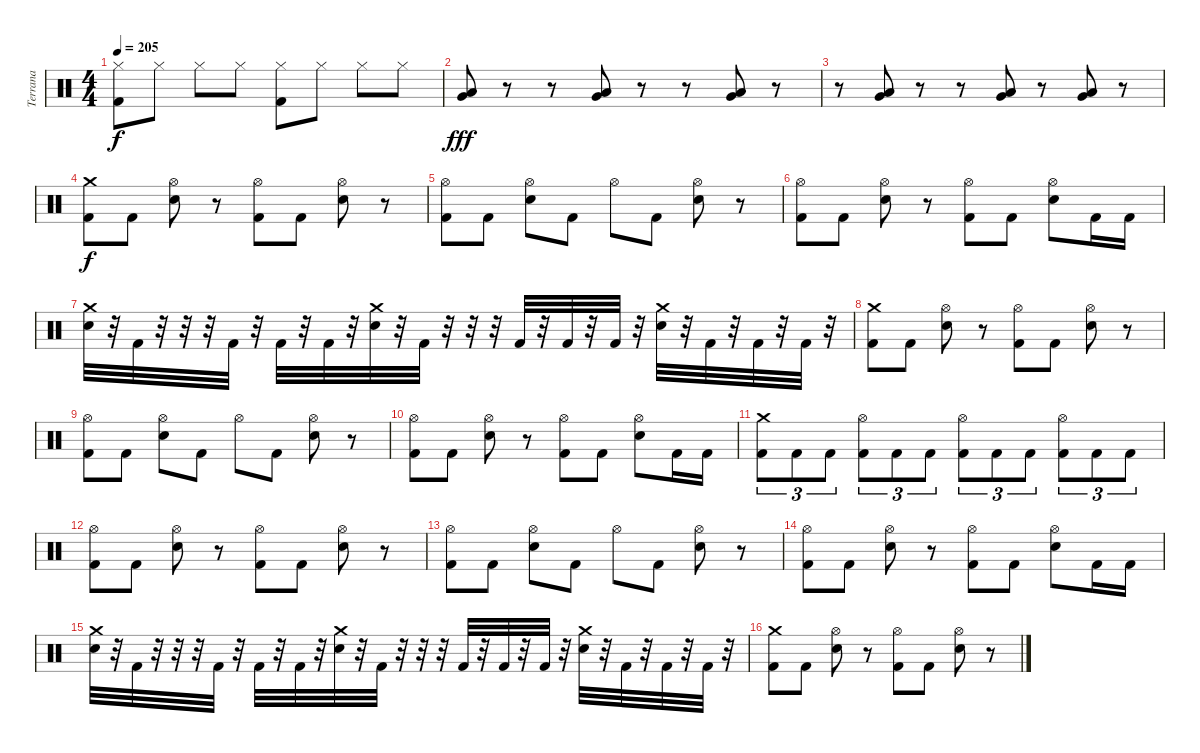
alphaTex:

\track ("Terrana" "Terrana") {instrument percussion}
\staff {score}
\articulation defaults
\ts (4 4)
\tempo 205
\clef neutral
\ks c
("Hi-Hat (closed)" "Kick (hit) 2").8{dy f} "Hi-Hat (closed)".8 "Hi-Hat (closed)".8 "Hi-Hat (closed)".8 ("Hi-Hat (closed)" "Kick (hit) 2").8 "Hi-Hat (closed)".8 "Hi-Hat (closed)".8 "Hi-Hat (closed)".8 |
("Low Floor Tom (hit)" "Very Low Tom (hit)").8{dy fff} r.8 r.8 ("Low Floor Tom (hit)" "Very Low Tom (hit)").8 r.8 r.8 ("Low Floor Tom (hit)" "Very Low Tom (hit)").8 r.8 |
r.8 ("Low Floor Tom (hit)" "Very Low Tom (hit)").8 r.8 r.8 ("Low Floor Tom (hit)" "Very Low Tom (hit)").8 r.8 ("Low Floor Tom (hit)" "Very Low Tom (hit)").8 r.8 |
("Crash medium (hit)" "Kick (hit) 2").8{dy f} "Kick (hit) 2".8 ("Hi-Hat (open)" "Electric Snare (hit)").8 r.8 ("Hi-Hat (open)" "Kick (hit) 2").8 "Kick (hit) 2".8 ("Hi-Hat (open)" "Electric Snare (hit)").8 r.8 |
("Hi-Hat (open)" "Kick (hit) 2").8 "Kick (hit) 2".8 ("Hi-Hat (open)" "Electric Snare (hit)").8 "Kick (hit) 2".8 "Hi-Hat (open)".8 "Kick (hit) 2".8 ("Hi-Hat (open)" "Electric Snare (hit)").8 r.8 |
("Hi-Hat (open)" "Kick (hit) 2").8 "Kick (hit) 2".8 ("Hi-Hat (open)" "Electric Snare (hit)").8 r.8 ("Hi-Hat (open)" "Kick (hit) 2").8 "Kick (hit) 2".8 ("Hi-Hat (open)" "Electric Snare (hit)").8 "Kick (hit) 2".16 "Kick (hit) 2".16 |
("Crash medium (hit)" "Electric Snare (hit)").32 r.32 "Kick (hit) 2".32 r.32 r.32 r.32 "Kick (hit) 2".32 r.32 "Kick (hit) 2".32 r.32 "Kick (hit) 2".32 r.32 ("Crash medium (hit)" "Electric Snare (hit)").32 r.32 "Kick (hit) 2".32 r.32 r.32 r.32 "Kick (hit) 2".32 r.32 "Kick (hit) 2".32 r.32 "Kick (hit) 2".32 r.32 ("Crash medium (hit)" "Electric Snare (hit)").32 r.32 "Kick (hit) 2".32 r.32 "Kick (hit) 2".32 r.32 "Kick (hit) 2".32 r.32 |
("Crash medium (hit)" "Kick (hit) 2").8 "Kick (hit) 2".8 ("Hi-Hat (open)" "Electric Snare (hit)").8 r.8 ("Hi-Hat (open)" "Kick (hit) 2").8 "Kick (hit) 2".8 ("Hi-Hat (open)" "Electric Snare (hit)").8 r.8 |
("Hi-Hat (open)" "Kick (hit) 2").8 "Kick (hit) 2".8 ("Hi-Hat (open)" "Electric Snare (hit)").8 "Kick (hit) 2".8 "Hi-Hat (open)".8 "Kick (hit) 2".8 ("Hi-Hat (open)" "Electric Snare (hit)").8 r.8 |
("Hi-Hat (open)" "Kick (hit) 2").8 "Kick (hit) 2".8 ("Hi-Hat (open)" "Electric Snare (hit)").8 r.8 ("Hi-Hat (open)" "Kick (hit) 2").8 "Kick (hit) 2".8 ("Hi-Hat (open)" "Electric Snare (hit)").8 "Kick (hit) 2".16 "Kick (hit) 2".16 |
("Crash medium (hit)" "Kick (hit) 2").8{tu (3 2)} "Kick (hit) 2".8{tu (3 2)} "Kick (hit) 2".8{tu (3 2)} ("Hi-Hat (open)" "Kick (hit) 2").8{tu (3 2)} "Kick (hit) 2".8{tu (3 2)} "Kick (hit) 2".8{tu (3 2)} ("Hi-Hat (open)" "Kick (hit) 2").8{tu (3 2)} "Kick (hit) 2".8{tu (3 2)} "Kick (hit) 2".8{tu (3 2)} ("Hi-Hat (open)" "Kick (hit) 2").8{tu (3 2)} "Kick (hit) 2".8{tu (3 2)} "Kick (hit) 2".8{tu (3 2)} |
("Hi-Hat (open)" "Kick (hit) 2").8 "Kick (hit) 2".8 ("Hi-Hat (open)" "Electric Snare (hit)").8 r.8 ("Hi-Hat (open)" "Kick (hit) 2").8 "Kick (hit) 2".8 ("Hi-Hat (open)" "Electric Snare (hit)").8 r.8 |
("Hi-Hat (open)" "Kick (hit) 2").8 "Kick (hit) 2".8 ("Hi-Hat (open)" "Electric Snare (hit)").8 "Kick (hit) 2".8 "Hi-Hat (open)".8 "Kick (hit) 2".8 ("Hi-Hat (open)" "Electric Snare (hit)").8 r.8 |
("Hi-Hat (open)" "Kick (hit) 2").8 "Kick (hit) 2".8 ("Hi-Hat (open)" "Electric Snare (hit)").8 r.8 ("Hi-Hat (open)" "Kick (hit) 2").8 "Kick (hit) 2".8 ("Hi-Hat (open)" "Electric Snare (hit)").8 "Kick (hit) 2".16 "Kick (hit) 2".16 |
("Crash medium (hit)" "Electric Snare (hit)").32 r.32 "Kick (hit) 2".32 r.32 r.32 r.32 "Kick (hit) 2".32 r.32 "Kick (hit) 2".32 r.32 "Kick (hit) 2".32 r.32 ("Crash medium (hit)" "Electric Snare (hit)").32 r.32 "Kick (hit) 2".32 r.32 r.32 r.32 "Kick (hit) 2".32 r.32 "Kick (hit) 2".32 r.32 "Kick (hit) 2".32 r.32 ("Crash medium (hit)" "Electric Snare (hit)").32 r.32 "Kick (hit) 2".32 r.32 "Kick (hit) 2".32 r.32 "Kick (hit) 2".32 r.32 |
("Crash medium (hit)" "Kick (hit) 2").8 "Kick (hit) 2".8 ("Hi-Hat (open)" "Electric Snare (hit)").8 r.8 ("Hi-Hat (open)" "Kick (hit) 2").8 "Kick (hit) 2".8 ("Hi-Hat (open)" "Electric Snare (hit)").8 r.8
